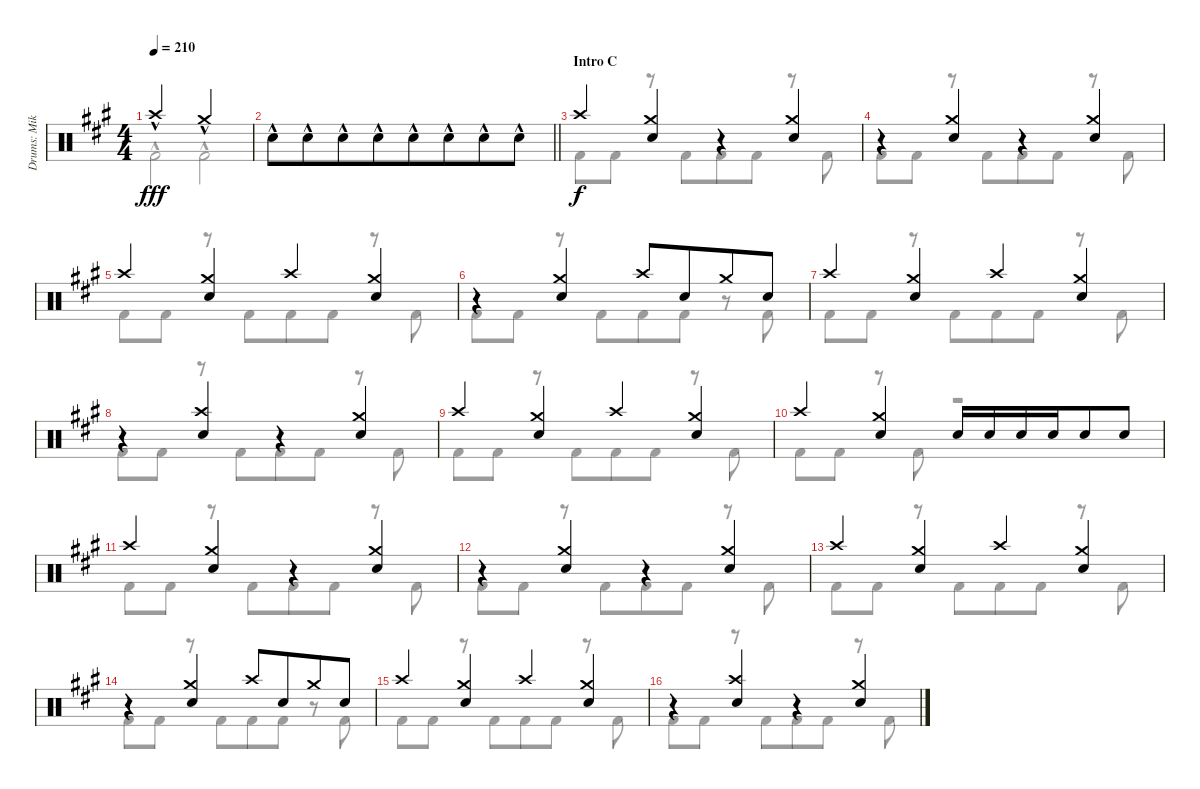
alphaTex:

\track ("Drums: Mikkey" "Drums: Mik") {instrument percussion}
\staff {score}
\articulation defaults
\voice
\ts (4 4)
\tempo 210
\clef neutral
\ks a "Crash high (hit)"{hac}.2{dy fff} "Crash medium (hit)"{hac}.2
|
\barLineRight lightlight "Snare (hit) 2"{hac}.8 "Snare (hit) 2"{hac}.8{beam merge} "Snare (hit) 2"{hac}.8 "Snare (hit) 2"{hac}.8{beam merge} "Snare (hit) 2"{hac}.8 "Snare (hit) 2"{hac}.8{beam merge} "Snare (hit) 2"{hac}.8 "Snare (hit) 2"{hac}.8
|
\section ("" "Intro C")
"Crash high (hit)".4{dy f} ("Crash medium (hit)" "Snare (hit) 2").4 r.4 ("Crash medium (hit)" "Snare (hit) 2").4 |
r.4 ("Crash medium (hit)" "Snare (hit) 2").4 r.4 ("Crash medium (hit)" "Snare (hit) 2").4 |
"Crash high (hit)".4 ("Crash medium (hit)" "Snare (hit) 2").4 "Crash high (hit)".4 ("Crash medium (hit)" "Snare (hit) 2").4 |
r.4 ("Crash medium (hit)" "Snare (hit) 2").4 "Crash high (hit)".8 "Snare (hit) 2".8{beam merge} "Crash medium (hit)".8 "Snare (hit) 2".8 |
"Crash high (hit)".4 ("Crash medium (hit)" "Snare (hit) 2").4 "Crash high (hit)".4 ("Crash medium (hit)" "Snare (hit) 2").4 |
r.4 ("Crash high (hit)" "Snare (hit) 2").4 r.4 ("Crash medium (hit)" "Snare (hit) 2").4 |
"Crash high (hit)".4 ("Crash medium (hit)" "Snare (hit) 2").4 "Crash high (hit)".4 ("Crash medium (hit)" "Snare (hit) 2").4 |
"Crash high (hit)".4 ("Crash medium (hit)" "Snare (hit) 2").4 "Snare (hit) 2".16 "Snare (hit) 2".16 "Snare (hit) 2".16 "Snare (hit) 2".16{beam merge} "Snare (hit) 2".8 "Snare (hit) 2".8 |
"Crash high (hit)".4 ("Crash medium (hit)" "Snare (hit) 2").4 r.4 ("Crash medium (hit)" "Snare (hit) 2").4 |
r.4 ("Crash medium (hit)" "Snare (hit) 2").4 r.4 ("Crash medium (hit)" "Snare (hit) 2").4 |
"Crash high (hit)".4 ("Crash medium (hit)" "Snare (hit) 2").4 "Crash high (hit)".4 ("Crash medium (hit)" "Snare (hit) 2").4 |
r.4 ("Crash medium (hit)" "Snare (hit) 2").4 "Crash high (hit)".8 "Snare (hit) 2".8{beam merge} "Crash medium (hit)".8 "Snare (hit) 2".8 |
"Crash high (hit)".4 ("Crash medium (hit)" "Snare (hit) 2").4 "Crash high (hit)".4 ("Crash medium (hit)" "Snare (hit) 2").4 |
r.4 ("Crash high (hit)" "Snare (hit) 2").4 r.4 ("Crash medium (hit)" "Snare (hit) 2").4
\voice
\clef neutral
\ottava regular
\simile none
\ks a "Kick (hit) 2"{hac}.2{dy fff} "Kick (hit) 2"{hac}.2
|
\barLineRight lightlight
|
"Kick (hit) 2".8{dy f} "Kick (hit) 2".8 r.8 "Kick (hit) 2".8{beam merge} "Kick (hit) 2".8 "Kick (hit) 2".8 r.8 "Kick (hit) 2".8 |
"Kick (hit) 2".8 "Kick (hit) 2".8 r.8 "Kick (hit) 2".8{beam merge} "Kick (hit) 2".8 "Kick (hit) 2".8 r.8 "Kick (hit) 2".8 |
"Kick (hit) 2".8 "Kick (hit) 2".8 r.8 "Kick (hit) 2".8{beam merge} "Kick (hit) 2".8 "Kick (hit) 2".8 r.8 "Kick (hit) 2".8 |
"Kick (hit) 2".8 "Kick (hit) 2".8 r.8 "Kick (hit) 2".8{beam merge} "Kick (hit) 2".8 "Kick (hit) 2".8 r.8 "Kick (hit) 2".8 |
"Kick (hit) 2".8 "Kick (hit) 2".8 r.8 "Kick (hit) 2".8{beam merge} "Kick (hit) 2".8 "Kick (hit) 2".8 r.8 "Kick (hit) 2".8 |
"Kick (hit) 2".8 "Kick (hit) 2".8 r.8 "Kick (hit) 2".8{beam merge} "Kick (hit) 2".8 "Kick (hit) 2".8 r.8 "Kick (hit) 2".8 |
"Kick (hit) 2".8 "Kick (hit) 2".8 r.8 "Kick (hit) 2".8{beam merge} "Kick (hit) 2".8 "Kick (hit) 2".8 r.8 "Kick (hit) 2".8 |
"Kick (hit) 2".8 "Kick (hit) 2".8 r.8 "Kick (hit) 2".8 r.2 |
"Kick (hit) 2".8 "Kick (hit) 2".8 r.8 "Kick (hit) 2".8{beam merge} "Kick (hit) 2".8 "Kick (hit) 2".8 r.8 "Kick (hit) 2".8 |
"Kick (hit) 2".8 "Kick (hit) 2".8 r.8 "Kick (hit) 2".8{beam merge} "Kick (hit) 2".8 "Kick (hit) 2".8 r.8 "Kick (hit) 2".8 |
"Kick (hit) 2".8 "Kick (hit) 2".8 r.8 "Kick (hit) 2".8{beam merge} "Kick (hit) 2".8 "Kick (hit) 2".8 r.8 "Kick (hit) 2".8 |
"Kick (hit) 2".8 "Kick (hit) 2".8 r.8 "Kick (hit) 2".8{beam merge} "Kick (hit) 2".8 "Kick (hit) 2".8 r.8 "Kick (hit) 2".8 |
"Kick (hit) 2".8 "Kick (hit) 2".8 r.8 "Kick (hit) 2".8{beam merge} "Kick (hit) 2".8 "Kick (hit) 2".8 r.8 "Kick (hit) 2".8 |
"Kick (hit) 2".8 "Kick (hit) 2".8 r.8 "Kick (hit) 2".8{beam merge} "Kick (hit) 2".8 "Kick (hit) 2".8 r.8 "Kick (hit) 2".8
